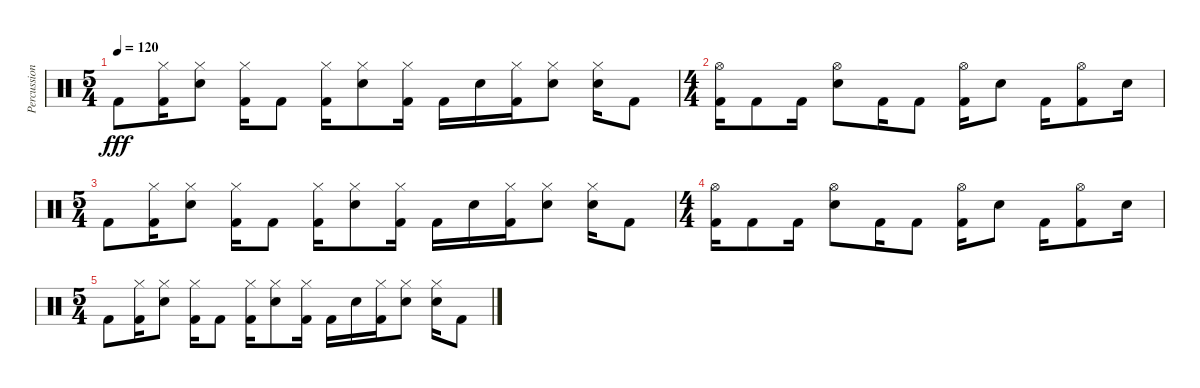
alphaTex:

\track ("Percussion" "Percussion") {instrument percussion}
\staff {score}
\articulation defaults
\ts (5 4)
\tempo 120
\clef neutral
\ks c "Kick (hit) 2".8{dy fff}
("Hi-Hat (closed)" "Kick (hit) 2").16 ("Hi-Hat (closed)" "Snare (hit) 2").8 ("Hi-Hat (closed)" "Kick (hit) 2").16 "Kick (hit) 2".8 ("Hi-Hat (closed)" "Kick (hit) 2").16 ("Hi-Hat (closed)" "Snare (hit) 2").8 ("Hi-Hat (closed)" "Kick (hit) 2").16 "Kick (hit) 2".16 "Snare (hit) 2".16 ("Hi-Hat (closed)" "Kick (hit) 2").16 ("Hi-Hat (closed)" "Snare (hit) 2").8 ("Hi-Hat (closed)" "Snare (hit) 2").16 "Kick (hit) 2".8 |
\ts (4 4)
("Hi-Hat (open)" "Kick (hit) 2").16 "Kick (hit) 2".8 "Kick (hit) 2".16 ("Hi-Hat (open)" "Snare (hit) 2").8 "Kick (hit) 2".16 "Kick (hit) 2".8 ("Hi-Hat (open)" "Kick (hit) 2").16 "Snare (hit) 2".8 "Kick (hit) 2".16 ("Hi-Hat (open)" "Kick (hit) 2").8 "Snare (hit) 2".16 |
\ts (5 4)
"Kick (hit) 2".8 ("Hi-Hat (closed)" "Kick (hit) 2").16 ("Hi-Hat (closed)" "Snare (hit) 2").8 ("Hi-Hat (closed)" "Kick (hit) 2").16 "Kick (hit) 2".8 ("Hi-Hat (closed)" "Kick (hit) 2").16 ("Hi-Hat (closed)" "Snare (hit) 2").8 ("Hi-Hat (closed)" "Kick (hit) 2").16 "Kick (hit) 2".16 "Snare (hit) 2".16 ("Hi-Hat (closed)" "Kick (hit) 2").16 ("Hi-Hat (closed)" "Snare (hit) 2").8 ("Hi-Hat (closed)" "Snare (hit) 2").16 "Kick (hit) 2".8 |
\ts (4 4)
("Hi-Hat (open)" "Kick (hit) 2").16 "Kick (hit) 2".8 "Kick (hit) 2".16 ("Hi-Hat (open)" "Snare (hit) 2").8 "Kick (hit) 2".16 "Kick (hit) 2".8 ("Hi-Hat (open)" "Kick (hit) 2").16 "Snare (hit) 2".8 "Kick (hit) 2".16 ("Hi-Hat (open)" "Kick (hit) 2").8 "Snare (hit) 2".16 |
\ts (5 4)
"Kick (hit) 2".8 ("Hi-Hat (closed)" "Kick (hit) 2").16 ("Hi-Hat (closed)" "Snare (hit) 2").8 ("Hi-Hat (closed)" "Kick (hit) 2").16 "Kick (hit) 2".8 ("Hi-Hat (closed)" "Kick (hit) 2").16 ("Hi-Hat (closed)" "Snare (hit) 2").8 ("Hi-Hat (closed)" "Kick (hit) 2").16 "Kick (hit) 2".16 "Snare (hit) 2".16 ("Hi-Hat (closed)" "Kick (hit) 2").16 ("Hi-Hat (closed)" "Snare (hit) 2").8 ("Hi-Hat (closed)" "Snare (hit) 2").16 "Kick (hit) 2".8
